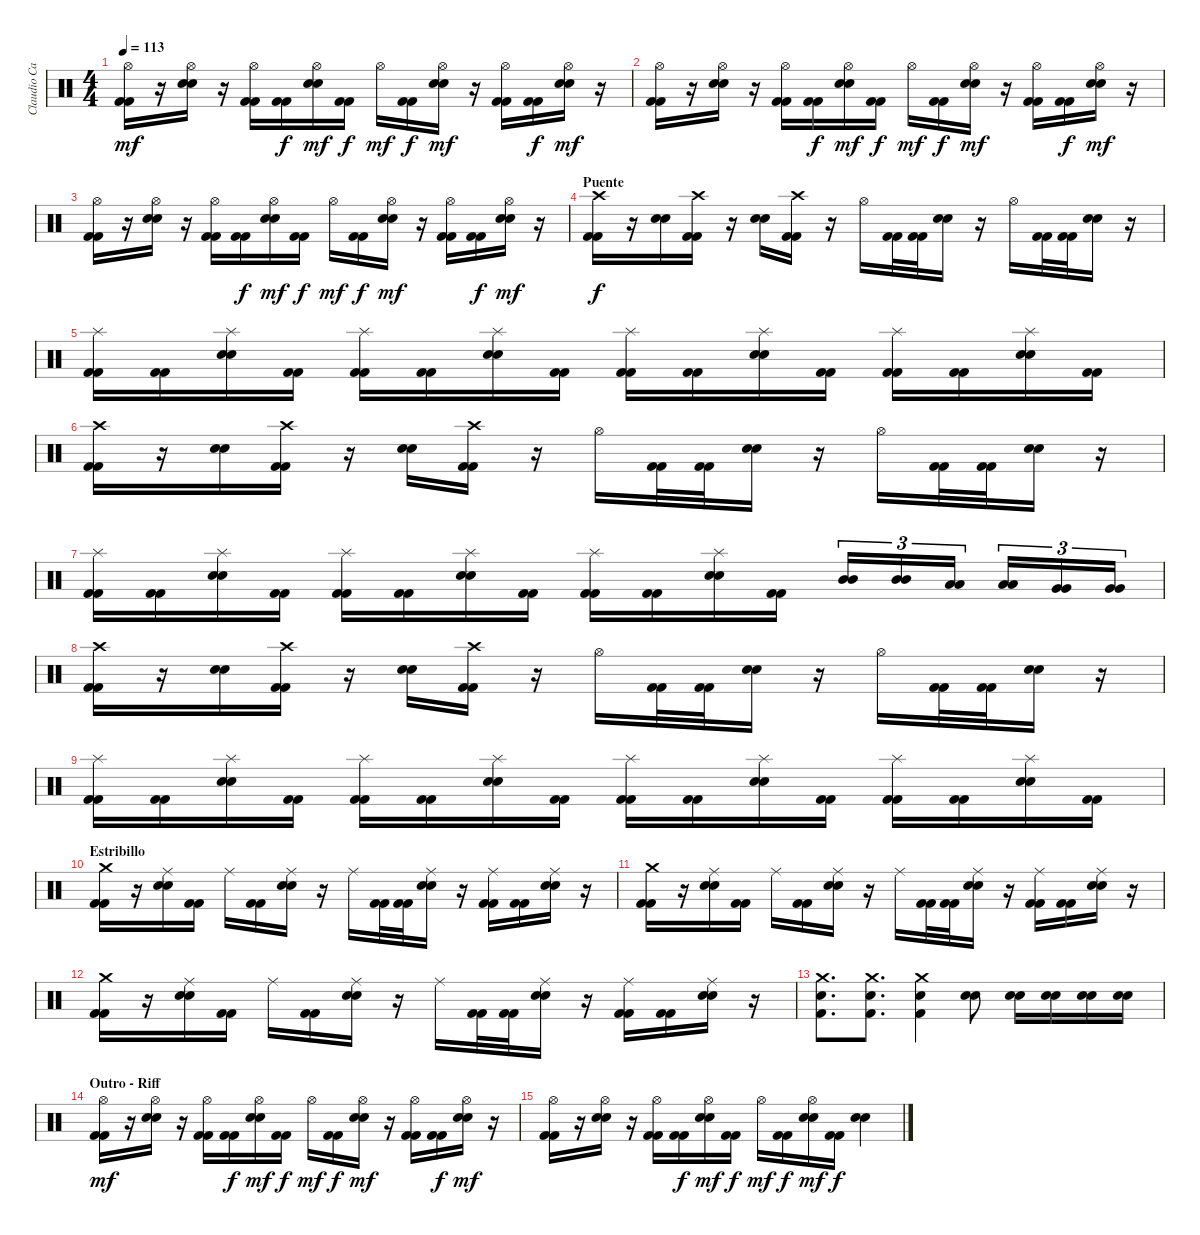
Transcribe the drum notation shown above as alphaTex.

\track ("Claudio Cardaci (bateria)" "Claudio Ca") {instrument percussion}
\staff {score}
\articulation defaults
\ts (4 4)
\tempo 113
\clef neutral
\ks c
("Hi-Hat (open)" "Kick (hit) 2" "Kick (hit) 2").16{dy mf} r.16 ("Hi-Hat (open)" "Snare (hit) 2" "Snare (hit) 2").16 r.16 ("Hi-Hat (open)" "Kick (hit) 2" "Kick (hit) 2").16 ("Kick (hit) 2" "Kick (hit) 2").16{dy f} ("Hi-Hat (open)" "Snare (hit) 2" "Snare (hit) 2").16{dy mf} ("Kick (hit) 2" "Kick (hit) 2").16{dy f} "Hi-Hat (open)".16{dy mf} ("Kick (hit) 2" "Kick (hit) 2").16{dy f} ("Hi-Hat (open)" "Snare (hit) 2" "Snare (hit) 2").16{dy mf} r.16 ("Hi-Hat (open)" "Kick (hit) 2" "Kick (hit) 2").16 ("Kick (hit) 2" "Kick (hit) 2").16{dy f} ("Hi-Hat (open)" "Snare (hit) 2" "Snare (hit) 2").16{dy mf} r.16 |
("Hi-Hat (open)" "Kick (hit) 2" "Kick (hit) 2").16 r.16 ("Hi-Hat (open)" "Snare (hit) 2" "Snare (hit) 2").16 r.16 ("Hi-Hat (open)" "Kick (hit) 2" "Kick (hit) 2").16 ("Kick (hit) 2" "Kick (hit) 2").16{dy f} ("Hi-Hat (open)" "Snare (hit) 2" "Snare (hit) 2").16{dy mf} ("Kick (hit) 2" "Kick (hit) 2").16{dy f} "Hi-Hat (open)".16{dy mf} ("Kick (hit) 2" "Kick (hit) 2").16{dy f} ("Hi-Hat (open)" "Snare (hit) 2" "Snare (hit) 2").16{dy mf} r.16 ("Hi-Hat (open)" "Kick (hit) 2" "Kick (hit) 2").16 ("Kick (hit) 2" "Kick (hit) 2").16{dy f} ("Hi-Hat (open)" "Snare (hit) 2" "Snare (hit) 2").16{dy mf} r.16 |
("Hi-Hat (open)" "Kick (hit) 2" "Kick (hit) 2").16 r.16 ("Hi-Hat (open)" "Snare (hit) 2" "Snare (hit) 2").16 r.16 ("Hi-Hat (open)" "Kick (hit) 2" "Kick (hit) 2").16 ("Kick (hit) 2" "Kick (hit) 2").16{dy f} ("Hi-Hat (open)" "Snare (hit) 2" "Snare (hit) 2").16{dy mf} ("Kick (hit) 2" "Kick (hit) 2").16{dy f} "Hi-Hat (open)".16{dy mf} ("Kick (hit) 2" "Kick (hit) 2").16{dy f} ("Hi-Hat (open)" "Snare (hit) 2" "Snare (hit) 2").16{dy mf} r.16 ("Hi-Hat (open)" "Kick (hit) 2" "Kick (hit) 2").16 ("Kick (hit) 2" "Kick (hit) 2").16{dy f} ("Hi-Hat (open)" "Snare (hit) 2" "Snare (hit) 2").16{dy mf} r.16 |
\section ("" "Puente")
("Crash high (hit)" "Kick (hit) 2" "Kick (hit) 2").16{dy f} r.16 ("Snare (hit) 2" "Snare (hit) 2").16 ("Crash high (hit)" "Kick (hit) 2" "Kick (hit) 2").16 r.16 ("Snare (hit) 2" "Snare (hit) 2").16 ("Crash high (hit)" "Kick (hit) 2" "Kick (hit) 2").16 r.16 "Hi-Hat (open)".16 ("Kick (hit) 2" "Kick (hit) 2").32 ("Kick (hit) 2" "Kick (hit) 2").32 ("Snare (hit) 2" "Snare (hit) 2").16 r.16 "Hi-Hat (open)".16 ("Kick (hit) 2" "Kick (hit) 2").32 ("Kick (hit) 2" "Kick (hit) 2").32 ("Snare (hit) 2" "Snare (hit) 2").16 r.16 |
("Splash (hit)" "Kick (hit) 2" "Kick (hit) 2").16 ("Kick (hit) 2" "Kick (hit) 2").16 ("Splash (hit)" "Snare (hit) 2" "Snare (hit) 2").16 ("Kick (hit) 2" "Kick (hit) 2").16 ("Splash (hit)" "Kick (hit) 2" "Kick (hit) 2").16 ("Kick (hit) 2" "Kick (hit) 2").16 ("Splash (hit)" "Snare (hit) 2" "Snare (hit) 2").16 ("Kick (hit) 2" "Kick (hit) 2").16 ("Splash (hit)" "Kick (hit) 2" "Kick (hit) 2").16 ("Kick (hit) 2" "Kick (hit) 2").16 ("Splash (hit)" "Snare (hit) 2" "Snare (hit) 2").16 ("Kick (hit) 2" "Kick (hit) 2").16 ("Splash (hit)" "Kick (hit) 2" "Kick (hit) 2").16 ("Kick (hit) 2" "Kick (hit) 2").16 ("Splash (hit)" "Snare (hit) 2" "Snare (hit) 2").16 ("Kick (hit) 2" "Kick (hit) 2").16 |
("Crash high (hit)" "Kick (hit) 2" "Kick (hit) 2").16 r.16 ("Snare (hit) 2" "Snare (hit) 2").16 ("Crash high (hit)" "Kick (hit) 2" "Kick (hit) 2").16 r.16 ("Snare (hit) 2" "Snare (hit) 2").16 ("Crash high (hit)" "Kick (hit) 2" "Kick (hit) 2").16 r.16 "Hi-Hat (open)".16 ("Kick (hit) 2" "Kick (hit) 2").32 ("Kick (hit) 2" "Kick (hit) 2").32 ("Snare (hit) 2" "Snare (hit) 2").16 r.16 "Hi-Hat (open)".16 ("Kick (hit) 2" "Kick (hit) 2").32 ("Kick (hit) 2" "Kick (hit) 2").32 ("Snare (hit) 2" "Snare (hit) 2").16 r.16 |
("Splash (hit)" "Kick (hit) 2" "Kick (hit) 2").16 ("Kick (hit) 2" "Kick (hit) 2").16 ("Splash (hit)" "Snare (hit) 2" "Snare (hit) 2").16 ("Kick (hit) 2" "Kick (hit) 2").16 ("Splash (hit)" "Kick (hit) 2" "Kick (hit) 2").16 ("Kick (hit) 2" "Kick (hit) 2").16 ("Splash (hit)" "Snare (hit) 2" "Snare (hit) 2").16 ("Kick (hit) 2" "Kick (hit) 2").16 ("Splash (hit)" "Kick (hit) 2" "Kick (hit) 2").16 ("Kick (hit) 2" "Kick (hit) 2").16 ("Splash (hit)" "Snare (hit) 2" "Snare (hit) 2").16 ("Kick (hit) 2" "Kick (hit) 2").16 ("Mid Tom (hit)" "Mid Tom (hit)").16{tu (3 2)} ("Mid Tom (hit)" "Mid Tom (hit)").16{tu (3 2)} ("Low Tom (hit)" "Low Tom (hit)").16{tu (3 2)} ("Low Tom (hit)" "Low Tom (hit)").16{tu (3 2)} ("Very Low Tom (hit)" "Very Low Tom (hit)").16{tu (3 2)} ("Very Low Tom (hit)" "Very Low Tom (hit)").16{tu (3 2)} |
("Crash high (hit)" "Kick (hit) 2" "Kick (hit) 2").16 r.16 ("Snare (hit) 2" "Snare (hit) 2").16 ("Crash high (hit)" "Kick (hit) 2" "Kick (hit) 2").16 r.16 ("Snare (hit) 2" "Snare (hit) 2").16 ("Crash high (hit)" "Kick (hit) 2" "Kick (hit) 2").16 r.16 "Hi-Hat (open)".16 ("Kick (hit) 2" "Kick (hit) 2").32 ("Kick (hit) 2" "Kick (hit) 2").32 ("Snare (hit) 2" "Snare (hit) 2").16 r.16 "Hi-Hat (open)".16 ("Kick (hit) 2" "Kick (hit) 2").32 ("Kick (hit) 2" "Kick (hit) 2").32 ("Snare (hit) 2" "Snare (hit) 2").16 r.16 |
("Splash (hit)" "Kick (hit) 2" "Kick (hit) 2").16 ("Kick (hit) 2" "Kick (hit) 2").16 ("Splash (hit)" "Snare (hit) 2" "Snare (hit) 2").16 ("Kick (hit) 2" "Kick (hit) 2").16 ("Splash (hit)" "Kick (hit) 2" "Kick (hit) 2").16 ("Kick (hit) 2" "Kick (hit) 2").16 ("Splash (hit)" "Snare (hit) 2" "Snare (hit) 2").16 ("Kick (hit) 2" "Kick (hit) 2").16 ("Splash (hit)" "Kick (hit) 2" "Kick (hit) 2").16 ("Kick (hit) 2" "Kick (hit) 2").16 ("Splash (hit)" "Snare (hit) 2" "Snare (hit) 2").16 ("Kick (hit) 2" "Kick (hit) 2").16 ("Splash (hit)" "Kick (hit) 2" "Kick (hit) 2").16 ("Kick (hit) 2" "Kick (hit) 2").16 ("Splash (hit)" "Snare (hit) 2" "Snare (hit) 2").16 ("Kick (hit) 2" "Kick (hit) 2").16 |
\section ("" "Estribillo")
("Crash medium (hit)" "Kick (hit) 2" "Kick (hit) 2").16 r.16 ("Ride (middle)" "Snare (hit) 2" "Snare (hit) 2").16 ("Kick (hit) 2" "Kick (hit) 2").16 "Ride (middle)".16 ("Kick (hit) 2" "Kick (hit) 2").16 ("Ride (middle)" "Snare (hit) 2" "Snare (hit) 2").16 r.16 "Ride (middle)".16 ("Kick (hit) 2" "Kick (hit) 2").32 ("Kick (hit) 2" "Kick (hit) 2").32 ("Ride (middle)" "Snare (hit) 2" "Snare (hit) 2").16 r.16 ("Ride (middle)" "Kick (hit) 2" "Kick (hit) 2").16 ("Kick (hit) 2" "Kick (hit) 2").16 ("Ride (middle)" "Snare (hit) 2" "Snare (hit) 2").16 r.16 |
("Crash medium (hit)" "Kick (hit) 2" "Kick (hit) 2").16 r.16 ("Ride (middle)" "Snare (hit) 2" "Snare (hit) 2").16 ("Kick (hit) 2" "Kick (hit) 2").16 "Ride (middle)".16 ("Kick (hit) 2" "Kick (hit) 2").16 ("Ride (middle)" "Snare (hit) 2" "Snare (hit) 2").16 r.16 "Ride (middle)".16 ("Kick (hit) 2" "Kick (hit) 2").32 ("Kick (hit) 2" "Kick (hit) 2").32 ("Ride (middle)" "Snare (hit) 2" "Snare (hit) 2").16 r.16 ("Ride (middle)" "Kick (hit) 2" "Kick (hit) 2").16 ("Kick (hit) 2" "Kick (hit) 2").16 ("Ride (middle)" "Snare (hit) 2" "Snare (hit) 2").16 r.16 |
("Crash medium (hit)" "Kick (hit) 2" "Kick (hit) 2").16 r.16 ("Ride (middle)" "Snare (hit) 2" "Snare (hit) 2").16 ("Kick (hit) 2" "Kick (hit) 2").16 "Ride (middle)".16 ("Kick (hit) 2" "Kick (hit) 2").16 ("Ride (middle)" "Snare (hit) 2" "Snare (hit) 2").16 r.16 "Ride (middle)".16 ("Kick (hit) 2" "Kick (hit) 2").32 ("Kick (hit) 2" "Kick (hit) 2").32 ("Ride (middle)" "Snare (hit) 2" "Snare (hit) 2").16 r.16 ("Ride (middle)" "Kick (hit) 2" "Kick (hit) 2").16 ("Kick (hit) 2" "Kick (hit) 2").16 ("Ride (middle)" "Snare (hit) 2" "Snare (hit) 2").16 r.16 |
("Crash medium (hit)" "Snare (hit) 2" "Kick (hit) 2").8{d} ("Crash medium (hit)" "Snare (hit) 2" "Kick (hit) 2").8{d} ("Crash medium (hit)" "Snare (hit) 2" "Kick (hit) 2").4 ("Electric Snare (hit)" "Electric Snare (hit)").8 ("Snare (hit) 2" "Snare (hit) 2").16 ("Snare (hit) 2" "Snare (hit) 2").16 ("Snare (hit) 2" "Snare (hit) 2").16 ("Snare (hit) 2" "Snare (hit) 2").16 |
\section ("" "Outro - Riff")
("Hi-Hat (open)" "Kick (hit) 2" "Kick (hit) 2").16{dy mf} r.16 ("Hi-Hat (open)" "Snare (hit) 2" "Snare (hit) 2").16 r.16 ("Hi-Hat (open)" "Kick (hit) 2" "Kick (hit) 2").16 ("Kick (hit) 2" "Kick (hit) 2").16{dy f} ("Hi-Hat (open)" "Snare (hit) 2" "Snare (hit) 2").16{dy mf} ("Kick (hit) 2" "Kick (hit) 2").16{dy f} "Hi-Hat (open)".16{dy mf} ("Kick (hit) 2" "Kick (hit) 2").16{dy f} ("Hi-Hat (open)" "Snare (hit) 2" "Snare (hit) 2").16{dy mf} r.16 ("Hi-Hat (open)" "Kick (hit) 2" "Kick (hit) 2").16 ("Kick (hit) 2" "Kick (hit) 2").16{dy f} ("Hi-Hat (open)" "Snare (hit) 2" "Snare (hit) 2").16{dy mf} r.16 |
("Hi-Hat (open)" "Kick (hit) 2" "Kick (hit) 2").16 r.16 ("Hi-Hat (open)" "Snare (hit) 2" "Snare (hit) 2").16 r.16 ("Hi-Hat (open)" "Kick (hit) 2" "Kick (hit) 2").16 ("Kick (hit) 2" "Kick (hit) 2").16{dy f} ("Hi-Hat (open)" "Snare (hit) 2" "Snare (hit) 2").16{dy mf} ("Kick (hit) 2" "Kick (hit) 2").16{dy f} "Hi-Hat (open)".16{dy mf} ("Kick (hit) 2" "Kick (hit) 2").16{dy f} ("Hi-Hat (open)" "Snare (hit) 2" "Snare (hit) 2").16{dy mf} ("Kick (hit) 2" "Kick (hit) 2").16{dy f} ("Snare (hit) 2" "Snare (hit) 2").4
